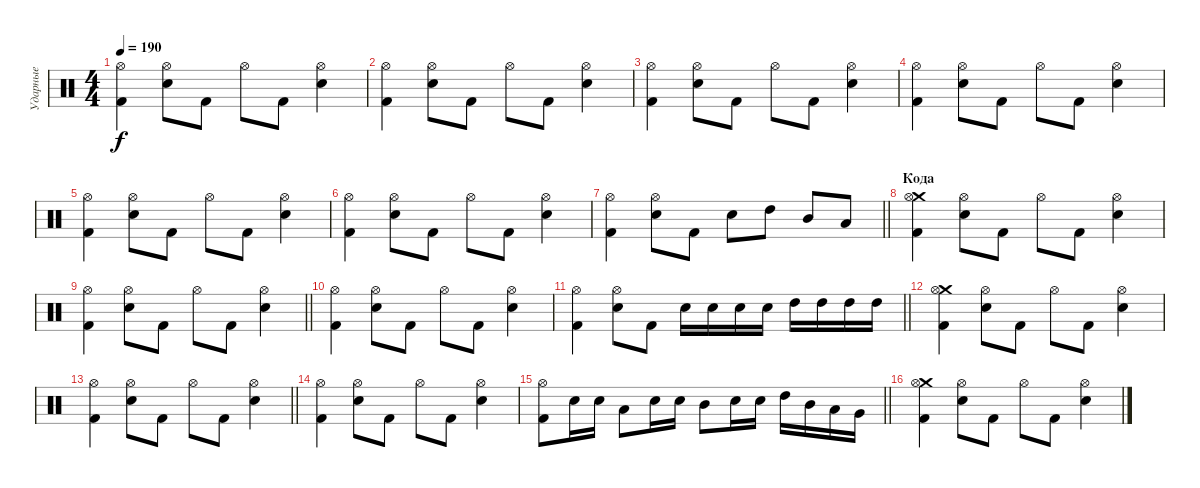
\track ("Ударные" "Ударные") {instrument percussion}
\staff {score}
\articulation defaults
\ts (4 4)
\tempo 190
\clef neutral
\ks c
("Kick (hit) 2" "Hi-Hat (open)").4{dy f} ("Electric Snare (hit)" "Hi-Hat (open)").8 "Kick (hit) 2".8 "Hi-Hat (open)".8 "Kick (hit) 2".8 ("Electric Snare (hit)" "Hi-Hat (open)").4 |
("Kick (hit) 2" "Hi-Hat (open)").4 ("Electric Snare (hit)" "Hi-Hat (open)").8 "Kick (hit) 2".8 "Hi-Hat (open)".8 "Kick (hit) 2".8 ("Electric Snare (hit)" "Hi-Hat (open)").4 |
("Kick (hit) 2" "Hi-Hat (open)").4 ("Electric Snare (hit)" "Hi-Hat (open)").8 "Kick (hit) 2".8 "Hi-Hat (open)".8 "Kick (hit) 2".8 ("Electric Snare (hit)" "Hi-Hat (open)").4 |
("Kick (hit) 2" "Hi-Hat (open)").4 ("Electric Snare (hit)" "Hi-Hat (open)").8 "Kick (hit) 2".8 "Hi-Hat (open)".8 "Kick (hit) 2".8 ("Electric Snare (hit)" "Hi-Hat (open)").4 |
("Kick (hit) 2" "Hi-Hat (open)").4 ("Electric Snare (hit)" "Hi-Hat (open)").8 "Kick (hit) 2".8 "Hi-Hat (open)".8 "Kick (hit) 2".8 ("Electric Snare (hit)" "Hi-Hat (open)").4 |
("Kick (hit) 2" "Hi-Hat (open)").4 ("Electric Snare (hit)" "Hi-Hat (open)").8 "Kick (hit) 2".8 "Hi-Hat (open)".8 "Kick (hit) 2".8 ("Electric Snare (hit)" "Hi-Hat (open)").4 |
\barLineRight lightlight
("Kick (hit) 2" "Hi-Hat (open)").4 ("Electric Snare (hit)" "Hi-Hat (open)").8 "Kick (hit) 2".8 "Electric Snare (hit)".8 "High Tom (hit)".8 "Mid Tom (hit)".8 "Low Tom (hit)".8 |
\section ("" "Кода")
("Crash medium (hit)" "Kick (hit) 2" "Hi-Hat (open)").4 ("Electric Snare (hit)" "Hi-Hat (open)").8 "Kick (hit) 2".8 "Hi-Hat (open)".8 "Kick (hit) 2".8 ("Electric Snare (hit)" "Hi-Hat (open)").4 |
\barLineRight lightlight
("Kick (hit) 2" "Hi-Hat (open)").4 ("Electric Snare (hit)" "Hi-Hat (open)").8 "Kick (hit) 2".8 "Hi-Hat (open)".8 "Kick (hit) 2".8 ("Electric Snare (hit)" "Hi-Hat (open)").4 |
("Kick (hit) 2" "Hi-Hat (open)").4 ("Electric Snare (hit)" "Hi-Hat (open)").8 "Kick (hit) 2".8 "Hi-Hat (open)".8 "Kick (hit) 2".8 ("Electric Snare (hit)" "Hi-Hat (open)").4 |
\barLineRight lightlight
("Kick (hit) 2" "Hi-Hat (open)").4 ("Electric Snare (hit)" "Hi-Hat (open)").8 "Kick (hit) 2".8 "Electric Snare (hit)".16 "Electric Snare (hit)".16 "Electric Snare (hit)".16 "Electric Snare (hit)".16 "High Tom (hit)".16 "High Tom (hit)".16 "High Tom (hit)".16 "High Tom (hit)".16 |
("Crash medium (hit)" "Kick (hit) 2" "Hi-Hat (open)").4 ("Electric Snare (hit)" "Hi-Hat (open)").8 "Kick (hit) 2".8 "Hi-Hat (open)".8 "Kick (hit) 2".8 ("Electric Snare (hit)" "Hi-Hat (open)").4 |
\barLineRight lightlight
("Kick (hit) 2" "Hi-Hat (open)").4 ("Electric Snare (hit)" "Hi-Hat (open)").8 "Kick (hit) 2".8 "Hi-Hat (open)".8 "Kick (hit) 2".8 ("Electric Snare (hit)" "Hi-Hat (open)").4 |
("Kick (hit) 2" "Hi-Hat (open)").4 ("Electric Snare (hit)" "Hi-Hat (open)").8 "Kick (hit) 2".8 "Hi-Hat (open)".8 "Kick (hit) 2".8 ("Electric Snare (hit)" "Hi-Hat (open)").4 |
\barLineRight lightlight
("Kick (hit) 2" "Hi-Hat (open)").8 "Electric Snare (hit)".16 "Electric Snare (hit)".16 "Low Tom (hit)".8 "Electric Snare (hit)".16 "Electric Snare (hit)".16 "Mid Tom (hit)".8 "Electric Snare (hit)".16 "Electric Snare (hit)".16 "High Tom (hit)".16 "Mid Tom (hit)".16 "Low Tom (hit)".16 "Very Low Tom (hit)".16 |
("Crash medium (hit)" "Kick (hit) 2" "Hi-Hat (open)").4 ("Electric Snare (hit)" "Hi-Hat (open)").8 "Kick (hit) 2".8 "Hi-Hat (open)".8 "Kick (hit) 2".8 ("Electric Snare (hit)" "Hi-Hat (open)").4
